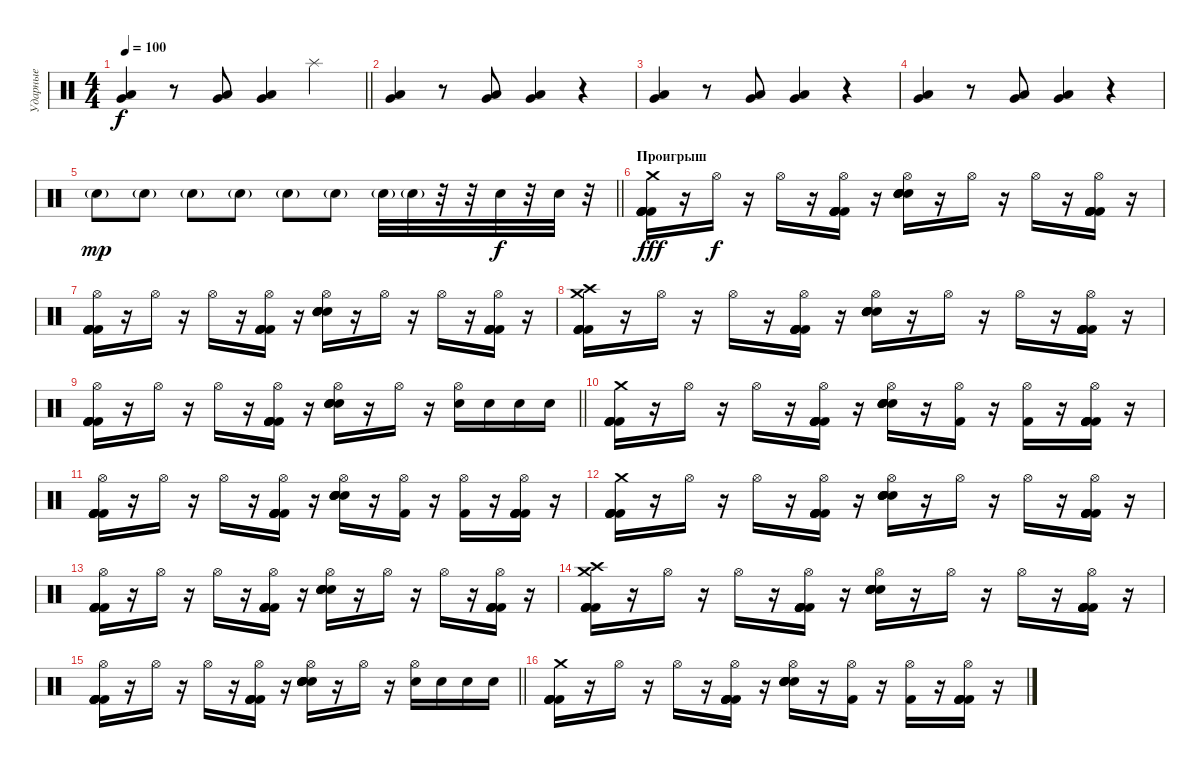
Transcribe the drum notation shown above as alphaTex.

\track ("Ударные" "Ударные") {instrument percussion}
\staff {score}
\articulation defaults
\ts (4 4)
\tempo 100
\clef neutral
\barLineRight lightlight
\ks c
("Low Floor Tom (hit)" "Very Low Tom (hit)").4{dy f} r.8 ("Low Floor Tom (hit)" "Very Low Tom (hit)").8 ("Low Floor Tom (hit)" "Very Low Tom (hit)").4 "Splash (hit)".4 |
("Low Floor Tom (hit)" "Very Low Tom (hit)").4 r.8 ("Low Floor Tom (hit)" "Very Low Tom (hit)").8 ("Low Floor Tom (hit)" "Very Low Tom (hit)").4 r.4 |
("Low Floor Tom (hit)" "Very Low Tom (hit)").4 r.8 ("Low Floor Tom (hit)" "Very Low Tom (hit)").8 ("Low Floor Tom (hit)" "Very Low Tom (hit)").4 r.4 |
("Low Floor Tom (hit)" "Very Low Tom (hit)").4 r.8 ("Low Floor Tom (hit)" "Very Low Tom (hit)").8 ("Low Floor Tom (hit)" "Very Low Tom (hit)").4 r.4 |
\barLineRight lightlight "Electric Snare (hit)"{g}.8{dy mp} "Electric Snare (hit)"{g}.8 "Electric Snare (hit)"{g}.8 "Electric Snare (hit)"{g}.8 "Electric Snare (hit)"{g}.8 "Electric Snare (hit)"{g}.8 "Electric Snare (hit)"{g}.32 "Electric Snare (hit)"{g}.32
r.32 r.32 "Electric Snare (hit)".32{dy f} r.32 "Electric Snare (hit)".32 r.32 |
\section ("" "Проигрыш")
("Crash medium (hit)" "Kick (hit) 2" "Kick (hit) 2" "Kick (hit) 2" "Kick (hit) 2" "Kick (hit) 2").16{dy fff} r.16 "Hi-Hat (open)".16{dy f} r.16 "Hi-Hat (open)".16 r.16 ("Kick (hit) 2" "Kick (hit) 2" "Hi-Hat (open)" "Kick (hit) 2" "Kick (hit) 2" "Kick (hit) 2").16 r.16 ("Electric Snare (hit)" "Electric Snare (hit)" "Hi-Hat (open)" "Electric Snare (hit)" "Electric Snare (hit)" "Electric Snare (hit)").16 r.16 "Hi-Hat (open)".16 r.16 "Hi-Hat (open)".16 r.16 ("Kick (hit) 2" "Kick (hit) 2" "Hi-Hat (open)" "Kick (hit) 2" "Kick (hit) 2" "Kick (hit) 2").16 r.16 |
("Kick (hit) 2" "Kick (hit) 2" "Hi-Hat (open)" "Kick (hit) 2" "Kick (hit) 2" "Kick (hit) 2").16 r.16 "Hi-Hat (open)".16 r.16 "Hi-Hat (open)".16 r.16 ("Kick (hit) 2" "Kick (hit) 2" "Hi-Hat (open)" "Kick (hit) 2" "Kick (hit) 2" "Kick (hit) 2").16 r.16 ("Electric Snare (hit)" "Electric Snare (hit)" "Hi-Hat (open)" "Electric Snare (hit)" "Electric Snare (hit)" "Electric Snare (hit)").16 r.16 "Hi-Hat (open)".16 r.16 "Hi-Hat (open)".16 r.16 ("Kick (hit) 2" "Kick (hit) 2" "Hi-Hat (open)" "Kick (hit) 2" "Kick (hit) 2" "Kick (hit) 2").16 r.16 |
("Crash medium (hit)" "Crash high (hit)" "Kick (hit) 2" "Kick (hit) 2" "Kick (hit) 2" "Kick (hit) 2").16 r.16 "Hi-Hat (open)".16 r.16 "Hi-Hat (open)".16 r.16 ("Kick (hit) 2" "Kick (hit) 2" "Hi-Hat (open)" "Kick (hit) 2" "Kick (hit) 2" "Kick (hit) 2").16 r.16 ("Electric Snare (hit)" "Electric Snare (hit)" "Hi-Hat (open)" "Electric Snare (hit)" "Electric Snare (hit)" "Electric Snare (hit)").16 r.16 "Hi-Hat (open)".16 r.16 "Hi-Hat (open)".16 r.16 ("Kick (hit) 2" "Kick (hit) 2" "Hi-Hat (open)" "Kick (hit) 2" "Kick (hit) 2" "Kick (hit) 2").16 r.16 |
\barLineRight lightlight
("Kick (hit) 2" "Kick (hit) 2" "Hi-Hat (open)" "Kick (hit) 2" "Kick (hit) 2" "Kick (hit) 2").16 r.16 "Hi-Hat (open)".16 r.16 "Hi-Hat (open)".16 r.16 ("Kick (hit) 2" "Kick (hit) 2" "Hi-Hat (open)" "Kick (hit) 2" "Kick (hit) 2" "Kick (hit) 2").16 r.16 ("Electric Snare (hit)" "Electric Snare (hit)" "Hi-Hat (open)" "Electric Snare (hit)" "Electric Snare (hit)" "Electric Snare (hit)").16 r.16 "Hi-Hat (open)".16 r.16 ("Hi-Hat (open)" "Electric Snare (hit)").16 "Electric Snare (hit)".16 "Electric Snare (hit)".16 "Electric Snare (hit)".16 |
("Crash medium (hit)" "Kick (hit) 2" "Kick (hit) 2" "Kick (hit) 2" "Kick (hit) 2" "Kick (hit) 2").16 r.16 "Hi-Hat (open)".16 r.16 "Hi-Hat (open)".16 r.16 ("Kick (hit) 2" "Kick (hit) 2" "Hi-Hat (open)" "Kick (hit) 2" "Kick (hit) 2" "Kick (hit) 2").16 r.16 ("Electric Snare (hit)" "Electric Snare (hit)" "Hi-Hat (open)" "Electric Snare (hit)" "Electric Snare (hit)" "Electric Snare (hit)").16 r.16 ("Hi-Hat (open)" "Kick (hit) 2").16 r.16 ("Hi-Hat (open)" "Kick (hit) 2").16 r.16 ("Kick (hit) 2" "Kick (hit) 2" "Hi-Hat (open)" "Kick (hit) 2" "Kick (hit) 2" "Kick (hit) 2").16 r.16 |
("Kick (hit) 2" "Kick (hit) 2" "Hi-Hat (open)" "Kick (hit) 2" "Kick (hit) 2" "Kick (hit) 2").16 r.16 "Hi-Hat (open)".16 r.16 "Hi-Hat (open)".16 r.16 ("Kick (hit) 2" "Kick (hit) 2" "Hi-Hat (open)" "Kick (hit) 2" "Kick (hit) 2" "Kick (hit) 2").16 r.16 ("Electric Snare (hit)" "Electric Snare (hit)" "Hi-Hat (open)" "Electric Snare (hit)" "Electric Snare (hit)" "Electric Snare (hit)").16 r.16 ("Hi-Hat (open)" "Kick (hit) 2").16 r.16 ("Hi-Hat (open)" "Kick (hit) 2").16 r.16 ("Kick (hit) 2" "Kick (hit) 2" "Hi-Hat (open)" "Kick (hit) 2" "Kick (hit) 2" "Kick (hit) 2").16 r.16 |
("Crash medium (hit)" "Kick (hit) 2" "Kick (hit) 2" "Kick (hit) 2" "Kick (hit) 2" "Kick (hit) 2").16 r.16 "Hi-Hat (open)".16 r.16 "Hi-Hat (open)".16 r.16 ("Kick (hit) 2" "Kick (hit) 2" "Hi-Hat (open)" "Kick (hit) 2" "Kick (hit) 2" "Kick (hit) 2").16 r.16 ("Electric Snare (hit)" "Electric Snare (hit)" "Hi-Hat (open)" "Electric Snare (hit)" "Electric Snare (hit)" "Electric Snare (hit)").16 r.16 "Hi-Hat (open)".16 r.16 "Hi-Hat (open)".16 r.16 ("Kick (hit) 2" "Kick (hit) 2" "Hi-Hat (open)" "Kick (hit) 2" "Kick (hit) 2" "Kick (hit) 2").16 r.16 |
("Kick (hit) 2" "Kick (hit) 2" "Hi-Hat (open)" "Kick (hit) 2" "Kick (hit) 2" "Kick (hit) 2").16 r.16 "Hi-Hat (open)".16 r.16 "Hi-Hat (open)".16 r.16 ("Kick (hit) 2" "Kick (hit) 2" "Hi-Hat (open)" "Kick (hit) 2" "Kick (hit) 2" "Kick (hit) 2").16 r.16 ("Electric Snare (hit)" "Electric Snare (hit)" "Hi-Hat (open)" "Electric Snare (hit)" "Electric Snare (hit)" "Electric Snare (hit)").16 r.16 "Hi-Hat (open)".16 r.16 "Hi-Hat (open)".16 r.16 ("Kick (hit) 2" "Kick (hit) 2" "Hi-Hat (open)" "Kick (hit) 2" "Kick (hit) 2" "Kick (hit) 2").16 r.16 |
("Crash medium (hit)" "Crash high (hit)" "Kick (hit) 2" "Kick (hit) 2" "Kick (hit) 2" "Kick (hit) 2").16 r.16 "Hi-Hat (open)".16 r.16 "Hi-Hat (open)".16 r.16 ("Kick (hit) 2" "Kick (hit) 2" "Hi-Hat (open)" "Kick (hit) 2" "Kick (hit) 2" "Kick (hit) 2").16 r.16 ("Electric Snare (hit)" "Electric Snare (hit)" "Hi-Hat (open)" "Electric Snare (hit)" "Electric Snare (hit)" "Electric Snare (hit)").16 r.16 "Hi-Hat (open)".16 r.16 "Hi-Hat (open)".16 r.16 ("Kick (hit) 2" "Kick (hit) 2" "Hi-Hat (open)" "Kick (hit) 2" "Kick (hit) 2" "Kick (hit) 2").16 r.16 |
\barLineRight lightlight
("Kick (hit) 2" "Kick (hit) 2" "Hi-Hat (open)" "Kick (hit) 2" "Kick (hit) 2" "Kick (hit) 2").16 r.16 "Hi-Hat (open)".16 r.16 "Hi-Hat (open)".16 r.16 ("Kick (hit) 2" "Kick (hit) 2" "Hi-Hat (open)" "Kick (hit) 2" "Kick (hit) 2" "Kick (hit) 2").16 r.16 ("Electric Snare (hit)" "Electric Snare (hit)" "Hi-Hat (open)" "Electric Snare (hit)" "Electric Snare (hit)" "Electric Snare (hit)").16 r.16 "Hi-Hat (open)".16 r.16 ("Hi-Hat (open)" "Electric Snare (hit)").16 "Electric Snare (hit)".16 "Electric Snare (hit)".16 "Electric Snare (hit)".16 |
("Crash medium (hit)" "Kick (hit) 2" "Kick (hit) 2" "Kick (hit) 2" "Kick (hit) 2" "Kick (hit) 2").16 r.16 "Hi-Hat (open)".16 r.16 "Hi-Hat (open)".16 r.16 ("Kick (hit) 2" "Kick (hit) 2" "Hi-Hat (open)" "Kick (hit) 2" "Kick (hit) 2" "Kick (hit) 2").16 r.16 ("Electric Snare (hit)" "Electric Snare (hit)" "Hi-Hat (open)" "Electric Snare (hit)" "Electric Snare (hit)" "Electric Snare (hit)").16 r.16 ("Hi-Hat (open)" "Kick (hit) 2").16 r.16 ("Hi-Hat (open)" "Kick (hit) 2").16 r.16 ("Kick (hit) 2" "Kick (hit) 2" "Hi-Hat (open)" "Kick (hit) 2" "Kick (hit) 2" "Kick (hit) 2").16 r.16
